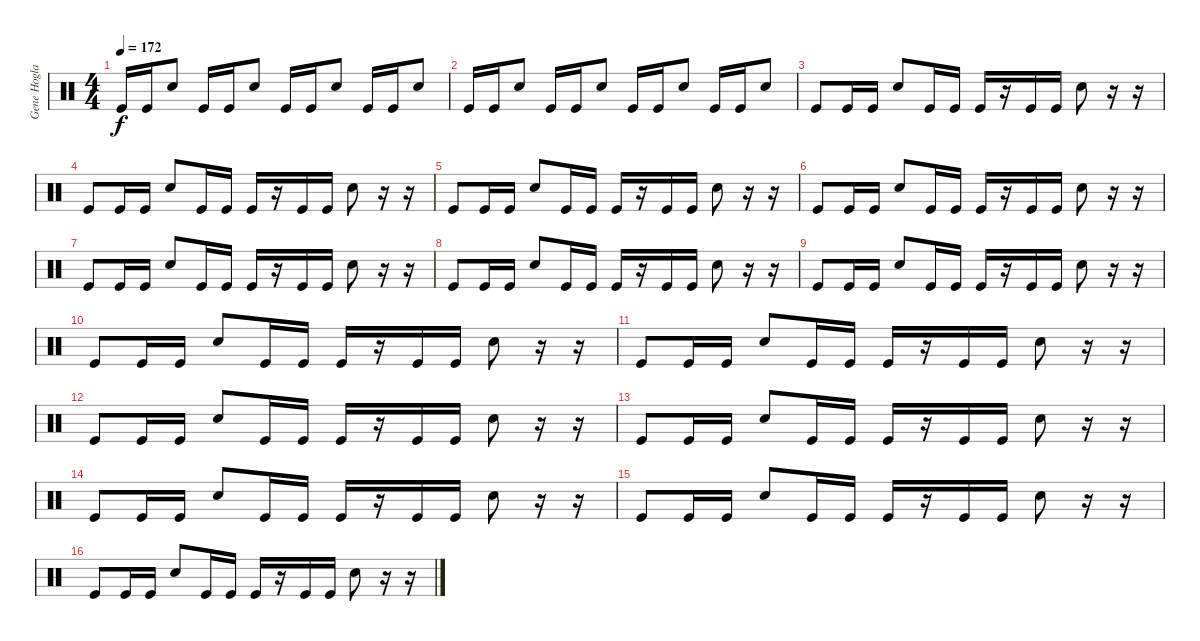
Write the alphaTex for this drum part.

\track ("Gene Hoglan" "Gene Hogla") {instrument percussion}
\staff {score}
\articulation defaults
\ts (4 4)
\tempo 172
\clef neutral
\ks c "Kick (hit)".16{dy f} "Kick (hit)".16 "Snare (hit) 2".8 "Kick (hit)".16 "Kick (hit)".16 "Snare (hit) 2".8 "Kick (hit)".16 "Kick (hit)".16 "Snare (hit) 2".8 "Kick (hit)".16 "Kick (hit)".16 "Snare (hit) 2".8
|
"Kick (hit)".16 "Kick (hit)".16 "Snare (hit) 2".8 "Kick (hit)".16 "Kick (hit)".16 "Snare (hit) 2".8 "Kick (hit)".16 "Kick (hit)".16 "Snare (hit) 2".8 "Kick (hit)".16 "Kick (hit)".16 "Snare (hit) 2".8 |
"Kick (hit)".8 "Kick (hit)".16 "Kick (hit)".16 "Snare (hit) 2".8 "Kick (hit)".16 "Kick (hit)".16 "Kick (hit)".16 r.16 "Kick (hit)".16 "Kick (hit)".16 "Snare (hit) 2".8 r.16 r.16 |
"Kick (hit)".8 "Kick (hit)".16 "Kick (hit)".16 "Snare (hit) 2".8 "Kick (hit)".16 "Kick (hit)".16 "Kick (hit)".16 r.16 "Kick (hit)".16 "Kick (hit)".16 "Snare (hit) 2".8 r.16 r.16 |
"Kick (hit)".8 "Kick (hit)".16 "Kick (hit)".16 "Snare (hit) 2".8 "Kick (hit)".16 "Kick (hit)".16 "Kick (hit)".16 r.16 "Kick (hit)".16 "Kick (hit)".16 "Snare (hit) 2".8 r.16 r.16 |
"Kick (hit)".8 "Kick (hit)".16 "Kick (hit)".16 "Snare (hit) 2".8 "Kick (hit)".16 "Kick (hit)".16 "Kick (hit)".16 r.16 "Kick (hit)".16 "Kick (hit)".16 "Snare (hit) 2".8 r.16 r.16 |
"Kick (hit)".8 "Kick (hit)".16 "Kick (hit)".16 "Snare (hit) 2".8 "Kick (hit)".16 "Kick (hit)".16 "Kick (hit)".16 r.16 "Kick (hit)".16 "Kick (hit)".16 "Snare (hit) 2".8 r.16 r.16 |
"Kick (hit)".8 "Kick (hit)".16 "Kick (hit)".16 "Snare (hit) 2".8 "Kick (hit)".16 "Kick (hit)".16 "Kick (hit)".16 r.16 "Kick (hit)".16 "Kick (hit)".16 "Snare (hit) 2".8 r.16 r.16 |
"Kick (hit)".8 "Kick (hit)".16 "Kick (hit)".16 "Snare (hit) 2".8 "Kick (hit)".16 "Kick (hit)".16 "Kick (hit)".16 r.16 "Kick (hit)".16 "Kick (hit)".16 "Snare (hit) 2".8 r.16 r.16 |
"Kick (hit)".8 "Kick (hit)".16 "Kick (hit)".16 "Snare (hit) 2".8 "Kick (hit)".16 "Kick (hit)".16 "Kick (hit)".16 r.16 "Kick (hit)".16 "Kick (hit)".16 "Snare (hit) 2".8 r.16 r.16 |
"Kick (hit)".8 "Kick (hit)".16 "Kick (hit)".16 "Snare (hit) 2".8 "Kick (hit)".16 "Kick (hit)".16 "Kick (hit)".16 r.16 "Kick (hit)".16 "Kick (hit)".16 "Snare (hit) 2".8 r.16 r.16 |
"Kick (hit)".8 "Kick (hit)".16 "Kick (hit)".16 "Snare (hit) 2".8 "Kick (hit)".16 "Kick (hit)".16 "Kick (hit)".16 r.16 "Kick (hit)".16 "Kick (hit)".16 "Snare (hit) 2".8 r.16 r.16 |
"Kick (hit)".8 "Kick (hit)".16 "Kick (hit)".16 "Snare (hit) 2".8 "Kick (hit)".16 "Kick (hit)".16 "Kick (hit)".16 r.16 "Kick (hit)".16 "Kick (hit)".16 "Snare (hit) 2".8 r.16 r.16 |
"Kick (hit)".8 "Kick (hit)".16 "Kick (hit)".16 "Snare (hit) 2".8 "Kick (hit)".16 "Kick (hit)".16 "Kick (hit)".16 r.16 "Kick (hit)".16 "Kick (hit)".16 "Snare (hit) 2".8 r.16 r.16 |
"Kick (hit)".8 "Kick (hit)".16 "Kick (hit)".16 "Snare (hit) 2".8 "Kick (hit)".16 "Kick (hit)".16 "Kick (hit)".16 r.16 "Kick (hit)".16 "Kick (hit)".16 "Snare (hit) 2".8 r.16 r.16 |
"Kick (hit)".8 "Kick (hit)".16 "Kick (hit)".16 "Snare (hit) 2".8 "Kick (hit)".16 "Kick (hit)".16 "Kick (hit)".16 r.16 "Kick (hit)".16 "Kick (hit)".16 "Snare (hit) 2".8 r.16 r.16
